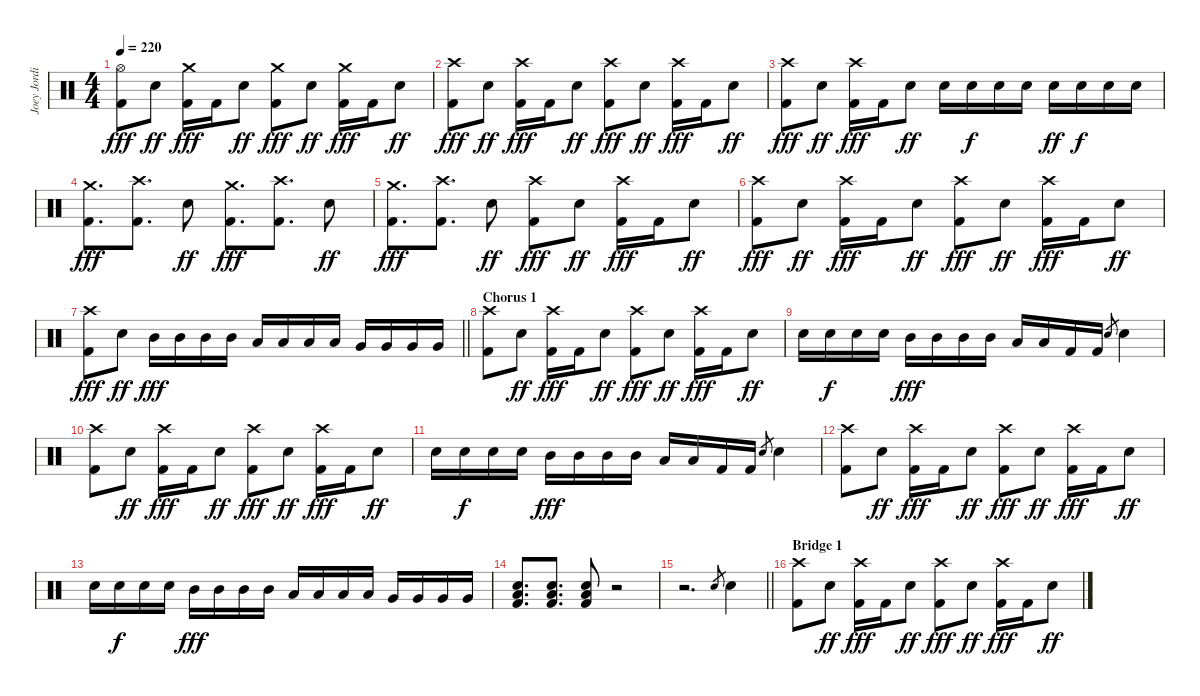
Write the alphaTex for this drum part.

\track ("Joey Jordison" "Joey Jordi") {instrument percussion}
\staff {score}
\articulation defaults
\ts (4 4)
\tempo 220
\clef neutral
\ks c
("Hi-Hat (open)" "Kick (hit) 2").8{dy fff} "Electric Snare (hit)".8{dy ff} ("Crash medium (hit)" "Kick (hit) 2").16{dy fff} "Kick (hit) 2".16 "Electric Snare (hit)".8{dy ff} ("Crash medium (hit)" "Kick (hit) 2").8{dy fff} "Electric Snare (hit)".8{dy ff} ("Crash medium (hit)" "Kick (hit) 2").16{dy fff} "Kick (hit) 2".16 "Electric Snare (hit)".8{dy ff} |
("Crash high (hit)" "Kick (hit) 2").8{dy fff} "Electric Snare (hit)".8{dy ff} ("Crash high (hit)" "Kick (hit) 2").16{dy fff} "Kick (hit) 2".16 "Electric Snare (hit)".8{dy ff} ("Crash high (hit)" "Kick (hit) 2").8{dy fff} "Electric Snare (hit)".8{dy ff} ("Crash high (hit)" "Kick (hit) 2").16{dy fff} "Kick (hit) 2".16 "Electric Snare (hit)".8{dy ff} |
("Crash high (hit)" "Kick (hit) 2").8{dy fff} "Electric Snare (hit)".8{dy ff} ("Crash high (hit)" "Kick (hit) 2").16{dy fff} "Kick (hit) 2".16 "Electric Snare (hit)".8{dy ff} "Electric Snare (hit)".16 "Electric Snare (hit)".16{dy f} "Electric Snare (hit)".16 "Electric Snare (hit)".16 "Electric Snare (hit)".16{dy ff} "Electric Snare (hit)".16{dy f} "Electric Snare (hit)".16 "Electric Snare (hit)".16 |
("Crash medium (hit)" "Kick (hit) 2").8{d dy fff} ("Crash high (hit)" "Kick (hit) 2").8{d} "Electric Snare (hit)".8{dy ff} ("Crash medium (hit)" "Kick (hit) 2").8{d dy fff} ("Crash high (hit)" "Kick (hit) 2").8{d} "Electric Snare (hit)".8{dy ff} |
("Crash medium (hit)" "Kick (hit) 2").8{d dy fff} ("Crash high (hit)" "Kick (hit) 2").8{d} "Electric Snare (hit)".8{dy ff} ("Crash high (hit)" "Kick (hit) 2").8{dy fff} "Electric Snare (hit)".8{dy ff} ("Crash high (hit)" "Kick (hit) 2").16{dy fff} "Kick (hit) 2".16 "Electric Snare (hit)".8{dy ff} |
("Crash high (hit)" "Kick (hit) 2").8{dy fff} "Electric Snare (hit)".8{dy ff} ("Crash high (hit)" "Kick (hit) 2").16{dy fff} "Kick (hit) 2".16 "Electric Snare (hit)".8{dy ff} ("Crash high (hit)" "Kick (hit) 2").8{dy fff} "Electric Snare (hit)".8{dy ff} ("Crash high (hit)" "Kick (hit) 2").16{dy fff} "Kick (hit) 2".16 "Electric Snare (hit)".8{dy ff} |
\barLineRight lightlight
("Crash high (hit)" "Kick (hit) 2").8{dy fff} "Electric Snare (hit)".8{dy ff} "Mid Tom (hit)".16{dy fff} "Mid Tom (hit)".16 "Mid Tom (hit)".16 "Mid Tom (hit)".16 "Low Tom (hit)".16 "Low Tom (hit)".16 "Low Tom (hit)".16 "Low Tom (hit)".16 "Very Low Tom (hit)".16 "Very Low Tom (hit)".16 "Very Low Tom (hit)".16 "Very Low Tom (hit)".16 |
\section ("" "Chorus 1")
("Crash high (hit)" "Kick (hit) 2").8 "Electric Snare (hit)".8{dy ff} ("Crash high (hit)" "Kick (hit) 2").16{dy fff} "Kick (hit) 2".16 "Electric Snare (hit)".8{dy ff} ("Crash high (hit)" "Kick (hit) 2").8{dy fff} "Electric Snare (hit)".8{dy ff} ("Crash high (hit)" "Kick (hit) 2").16{dy fff} "Kick (hit) 2".16 "Electric Snare (hit)".8{dy ff} |
"Electric Snare (hit)".16 "Electric Snare (hit)".16{dy f} "Electric Snare (hit)".16 "Electric Snare (hit)".16 "Mid Tom (hit)".16{dy fff} "Mid Tom (hit)".16 "Mid Tom (hit)".16 "Mid Tom (hit)".16 "Low Tom (hit)".16 "Low Tom (hit)".16 "Kick (hit) 2".16 "Kick (hit) 2".16 "Electric Snare (hit)".8{gr} "Electric Snare (hit)".4 |
("Crash high (hit)" "Kick (hit) 2").8 "Electric Snare (hit)".8{dy ff} ("Crash high (hit)" "Kick (hit) 2").16{dy fff} "Kick (hit) 2".16 "Electric Snare (hit)".8{dy ff} ("Crash high (hit)" "Kick (hit) 2").8{dy fff} "Electric Snare (hit)".8{dy ff} ("Crash high (hit)" "Kick (hit) 2").16{dy fff} "Kick (hit) 2".16 "Electric Snare (hit)".8{dy ff} |
"Electric Snare (hit)".16 "Electric Snare (hit)".16{dy f} "Electric Snare (hit)".16 "Electric Snare (hit)".16 "Mid Tom (hit)".16{dy fff} "Mid Tom (hit)".16 "Mid Tom (hit)".16 "Mid Tom (hit)".16 "Low Tom (hit)".16 "Low Tom (hit)".16 "Kick (hit) 2".16 "Kick (hit) 2".16 "Electric Snare (hit)".8{gr} "Electric Snare (hit)".4 |
("Crash high (hit)" "Kick (hit) 2").8 "Electric Snare (hit)".8{dy ff} ("Crash high (hit)" "Kick (hit) 2").16{dy fff} "Kick (hit) 2".16 "Electric Snare (hit)".8{dy ff} ("Crash high (hit)" "Kick (hit) 2").8{dy fff} "Electric Snare (hit)".8{dy ff} ("Crash high (hit)" "Kick (hit) 2").16{dy fff} "Kick (hit) 2".16 "Electric Snare (hit)".8{dy ff} |
"Electric Snare (hit)".16 "Electric Snare (hit)".16{dy f} "Electric Snare (hit)".16 "Electric Snare (hit)".16 "Mid Tom (hit)".16{dy fff} "Mid Tom (hit)".16 "Mid Tom (hit)".16 "Mid Tom (hit)".16 "Low Tom (hit)".16 "Low Tom (hit)".16 "Low Tom (hit)".16 "Low Tom (hit)".16 "Very Low Tom (hit)".16 "Very Low Tom (hit)".16 "Very Low Tom (hit)".16 "Very Low Tom (hit)".16 |
("Electric Snare (hit)" "Low Floor Tom (hit)" "Kick (hit) 2").8{d} ("Electric Snare (hit)" "Low Floor Tom (hit)" "Kick (hit) 2").8{d} ("Electric Snare (hit)" "Low Floor Tom (hit)" "Kick (hit) 2").8 r.2 |
\barLineRight lightlight
r.2{d} "Electric Snare (hit)".8{gr} "Electric Snare (hit)".4 |
\section ("" "Bridge 1")
("Crash high (hit)" "Kick (hit) 2").8 "Electric Snare (hit)".8{dy ff} ("Crash high (hit)" "Kick (hit) 2").16{dy fff} "Kick (hit) 2".16 "Electric Snare (hit)".8{dy ff} ("Crash high (hit)" "Kick (hit) 2").8{dy fff} "Electric Snare (hit)".8{dy ff} ("Crash high (hit)" "Kick (hit) 2").16{dy fff} "Kick (hit) 2".16 "Electric Snare (hit)".8{dy ff}
